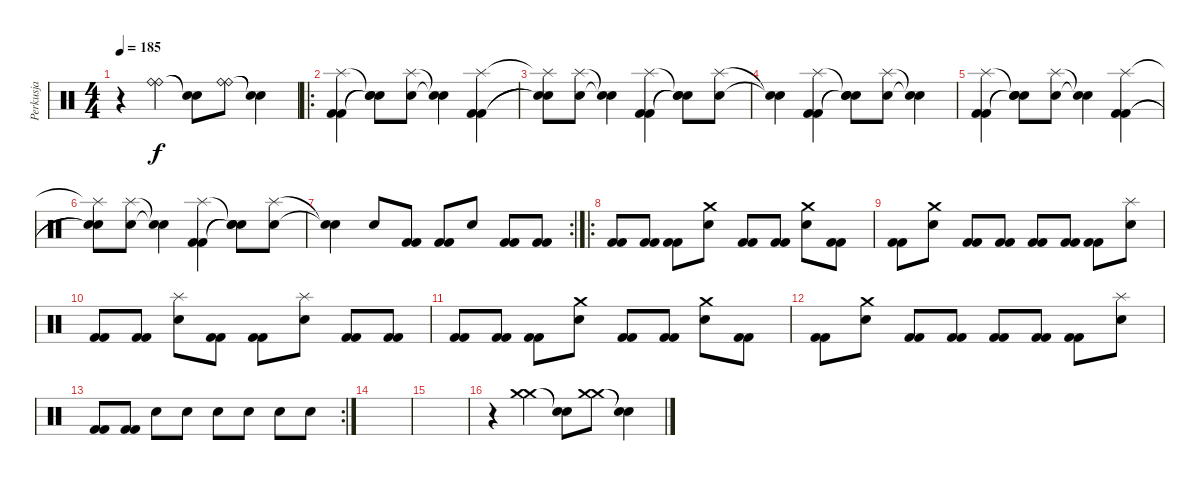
\track ("Perkusja" "Perkusja") {instrument percussion}
\staff {score}
\articulation defaults
\ts (4 4)
\tempo 185
\clef neutral
\ks c
r.4{dy f} ("Ride (bell)" "Ride (bell)").4 ("Snare (hit)"{t} "Snare (hit)"{t}).8 ("Ride (bell)" "Ride (bell)").8 ("Snare (hit)"{t} "Snare (hit)"{t}).4 |
\ro
("Splash (hit)" "Kick (hit) 2" "Kick (hit) 2").4 ("Snare (hit)"{t} "Snare (hit)"{t} "Snare (hit)"{t}).8 ("Splash (hit)" "Snare (hit) 2").8 ("Snare (hit)"{t} "Snare (hit)"{t}).4 ("Splash (hit)" "Kick (hit) 2" "Kick (hit) 2").4 |
("Splash (hit)"{t} "Snare (hit)"{t} "Snare (hit)"{t}).8 ("Splash (hit)" "Snare (hit) 2").8 ("Snare (hit)"{t} "Snare (hit)"{t}).4 ("Splash (hit)" "Kick (hit) 2" "Kick (hit) 2").4 ("Snare (hit)"{t} "Snare (hit)"{t} "Snare (hit)"{t}).8 ("Splash (hit)" "Snare (hit) 2").8 |
("Snare (hit)"{t} "Snare (hit)"{t}).4 ("Splash (hit)" "Kick (hit) 2" "Kick (hit) 2").4 ("Snare (hit)"{t} "Snare (hit)"{t} "Snare (hit)"{t}).8 ("Splash (hit)" "Snare (hit) 2").8 ("Snare (hit)"{t} "Snare (hit)"{t}).4 |
("Splash (hit)" "Kick (hit) 2" "Kick (hit) 2").4 ("Snare (hit)"{t} "Snare (hit)"{t} "Snare (hit)"{t}).8 ("Splash (hit)" "Snare (hit) 2").8 ("Snare (hit)"{t} "Snare (hit)"{t}).4 ("Splash (hit)" "Kick (hit) 2" "Kick (hit) 2").4 |
("Splash (hit)"{t} "Snare (hit)"{t} "Snare (hit)"{t}).8 ("Splash (hit)" "Snare (hit) 2").8 ("Snare (hit)"{t} "Snare (hit)"{t}).4 ("Splash (hit)" "Kick (hit) 2" "Kick (hit) 2").4 ("Snare (hit)"{t} "Snare (hit)"{t} "Snare (hit)"{t}).8 ("Splash (hit)" "Snare (hit) 2").8 |
\rc 2
("Snare (hit)"{t} "Snare (hit)"{t}).4 "Snare (hit) 2".8 ("Kick (hit) 2" "Kick (hit) 2").8 ("Kick (hit) 2" "Kick (hit) 2").8 "Snare (hit) 2".8 ("Kick (hit) 2" "Kick (hit) 2").8 ("Kick (hit) 2" "Kick (hit) 2").8 |
\ro
("Kick (hit) 2" "Kick (hit) 2").8 ("Kick (hit) 2" "Kick (hit) 2").8 ("Kick (hit) 2" "Kick (hit) 2").8 ("Crash medium (hit)" "Snare (hit) 2").8 ("Kick (hit) 2" "Kick (hit) 2").8 ("Kick (hit) 2" "Kick (hit) 2").8 ("Crash medium (hit)" "Snare (hit) 2").8 ("Kick (hit) 2" "Kick (hit) 2").8 |
("Kick (hit) 2" "Kick (hit) 2").8 ("Crash medium (hit)" "Snare (hit) 2").8 ("Kick (hit) 2" "Kick (hit) 2").8 ("Kick (hit) 2" "Kick (hit) 2").8 ("Kick (hit) 2" "Kick (hit) 2").8 ("Kick (hit) 2" "Kick (hit) 2").8 ("Kick (hit) 2" "Kick (hit) 2").8 ("Splash (hit)" "Snare (hit) 2").8 |
("Kick (hit) 2" "Kick (hit) 2").8 ("Kick (hit) 2" "Kick (hit) 2").8 ("Splash (hit)" "Snare (hit) 2").8 ("Kick (hit) 2" "Kick (hit) 2").8 ("Kick (hit) 2" "Kick (hit) 2").8 ("Splash (hit)" "Snare (hit) 2").8 ("Kick (hit) 2" "Kick (hit) 2").8 ("Kick (hit) 2" "Kick (hit) 2").8 |
("Kick (hit) 2" "Kick (hit) 2").8 ("Kick (hit) 2" "Kick (hit) 2").8 ("Kick (hit) 2" "Kick (hit) 2").8 ("Crash medium (hit)" "Snare (hit) 2").8 ("Kick (hit) 2" "Kick (hit) 2").8 ("Kick (hit) 2" "Kick (hit) 2").8 ("Crash medium (hit)" "Snare (hit) 2").8 ("Kick (hit) 2" "Kick (hit) 2").8 |
("Kick (hit) 2" "Kick (hit) 2").8 ("Crash medium (hit)" "Snare (hit) 2").8 ("Kick (hit) 2" "Kick (hit) 2").8 ("Kick (hit) 2" "Kick (hit) 2").8 ("Kick (hit) 2" "Kick (hit) 2").8 ("Kick (hit) 2" "Kick (hit) 2").8 ("Kick (hit) 2" "Kick (hit) 2").8 ("Splash (hit)" "Snare (hit) 2").8 |
\rc 2
("Kick (hit) 2" "Kick (hit) 2").8 ("Kick (hit) 2" "Kick (hit) 2").8 "Snare (hit) 2".8 "Snare (hit) 2".8 "Snare (hit) 2".8 "Snare (hit) 2".8 "Snare (hit) 2".8 "Snare (hit) 2".8 |
|
|
r.4 ("Crash medium (hit)" "Crash medium (hit)").4 ("Snare (hit)"{t} "Snare (hit)"{t}).8 ("Crash medium (hit)" "Crash medium (hit)").8 ("Snare (hit)"{t} "Snare (hit)"{t}).4
